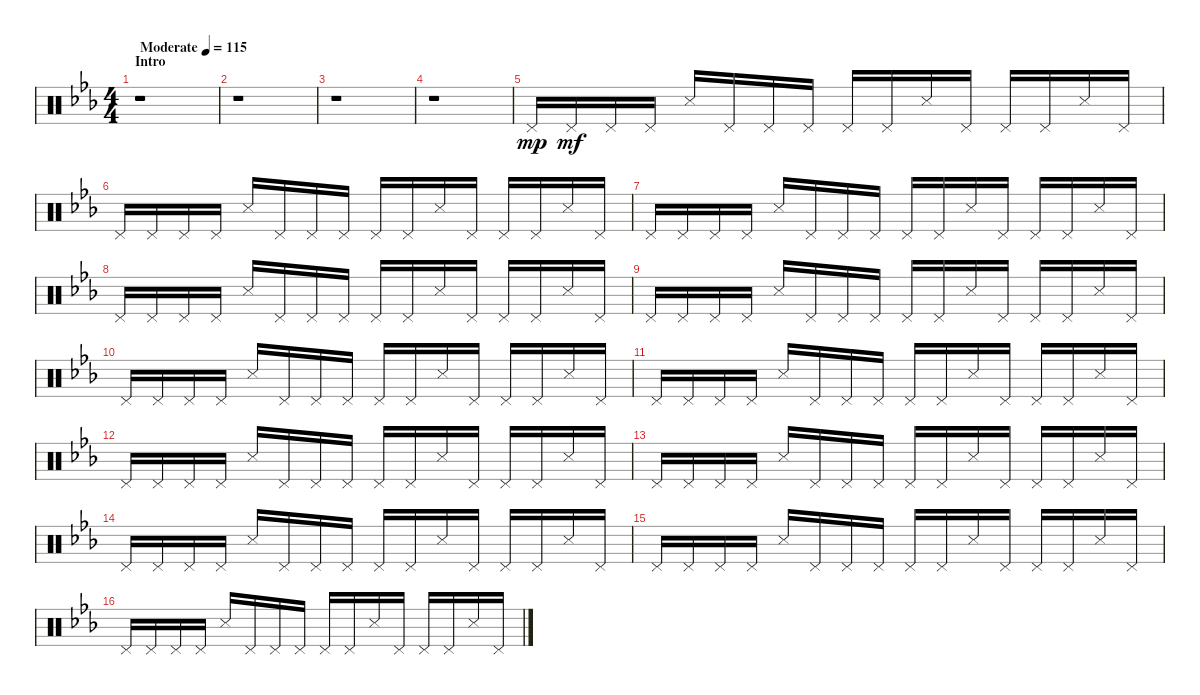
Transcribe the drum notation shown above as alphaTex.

\track "" {instrument percussion}
\staff {score}
\articulation defaults
\ts (4 4)
\section ("" "Intro")
\tempo (115 "Moderate")
\clef neutral
\ks cminor
r.1{dy mp} |
r.1 |
r.1 |
r.1 |
"Pedal Hi-Hat (hit)".16{volume 4} "Pedal Hi-Hat (hit)".16{dy mf} "Pedal Hi-Hat (hit)".16 "Pedal Hi-Hat (hit)".16 "Snare (side stick) 3".16 "Pedal Hi-Hat (hit)".16 "Pedal Hi-Hat (hit)".16 "Pedal Hi-Hat (hit)".16 "Pedal Hi-Hat (hit)".16 "Pedal Hi-Hat (hit)".16 "Snare (side stick) 3".16 "Pedal Hi-Hat (hit)".16 "Pedal Hi-Hat (hit)".16 "Pedal Hi-Hat (hit)".16 "Snare (side stick) 3".16 "Pedal Hi-Hat (hit)".16 |
"Pedal Hi-Hat (hit)".16 "Pedal Hi-Hat (hit)".16 "Pedal Hi-Hat (hit)".16 "Pedal Hi-Hat (hit)".16 "Snare (side stick) 3".16 "Pedal Hi-Hat (hit)".16 "Pedal Hi-Hat (hit)".16 "Pedal Hi-Hat (hit)".16 "Pedal Hi-Hat (hit)".16 "Pedal Hi-Hat (hit)".16 "Snare (side stick) 3".16 "Pedal Hi-Hat (hit)".16 "Pedal Hi-Hat (hit)".16 "Pedal Hi-Hat (hit)".16 "Snare (side stick) 3".16 "Pedal Hi-Hat (hit)".16 |
"Pedal Hi-Hat (hit)".16 "Pedal Hi-Hat (hit)".16 "Pedal Hi-Hat (hit)".16 "Pedal Hi-Hat (hit)".16 "Snare (side stick) 3".16 "Pedal Hi-Hat (hit)".16 "Pedal Hi-Hat (hit)".16 "Pedal Hi-Hat (hit)".16 "Pedal Hi-Hat (hit)".16 "Pedal Hi-Hat (hit)".16 "Snare (side stick) 3".16 "Pedal Hi-Hat (hit)".16 "Pedal Hi-Hat (hit)".16 "Pedal Hi-Hat (hit)".16 "Snare (side stick) 3".16 "Pedal Hi-Hat (hit)".16 |
"Pedal Hi-Hat (hit)".16 "Pedal Hi-Hat (hit)".16 "Pedal Hi-Hat (hit)".16 "Pedal Hi-Hat (hit)".16 "Snare (side stick) 3".16 "Pedal Hi-Hat (hit)".16 "Pedal Hi-Hat (hit)".16 "Pedal Hi-Hat (hit)".16 "Pedal Hi-Hat (hit)".16 "Pedal Hi-Hat (hit)".16 "Snare (side stick) 3".16 "Pedal Hi-Hat (hit)".16 "Pedal Hi-Hat (hit)".16 "Pedal Hi-Hat (hit)".16 "Snare (side stick) 3".16 "Pedal Hi-Hat (hit)".16 |
"Pedal Hi-Hat (hit)".16 "Pedal Hi-Hat (hit)".16 "Pedal Hi-Hat (hit)".16 "Pedal Hi-Hat (hit)".16 "Snare (side stick) 3".16 "Pedal Hi-Hat (hit)".16 "Pedal Hi-Hat (hit)".16 "Pedal Hi-Hat (hit)".16 "Pedal Hi-Hat (hit)".16 "Pedal Hi-Hat (hit)".16 "Snare (side stick) 3".16 "Pedal Hi-Hat (hit)".16 "Pedal Hi-Hat (hit)".16 "Pedal Hi-Hat (hit)".16 "Snare (side stick) 3".16 "Pedal Hi-Hat (hit)".16 |
"Pedal Hi-Hat (hit)".16 "Pedal Hi-Hat (hit)".16 "Pedal Hi-Hat (hit)".16 "Pedal Hi-Hat (hit)".16 "Snare (side stick) 3".16 "Pedal Hi-Hat (hit)".16 "Pedal Hi-Hat (hit)".16 "Pedal Hi-Hat (hit)".16 "Pedal Hi-Hat (hit)".16 "Pedal Hi-Hat (hit)".16 "Snare (side stick) 3".16 "Pedal Hi-Hat (hit)".16 "Pedal Hi-Hat (hit)".16 "Pedal Hi-Hat (hit)".16 "Snare (side stick) 3".16 "Pedal Hi-Hat (hit)".16 |
"Pedal Hi-Hat (hit)".16 "Pedal Hi-Hat (hit)".16 "Pedal Hi-Hat (hit)".16 "Pedal Hi-Hat (hit)".16 "Snare (side stick) 3".16 "Pedal Hi-Hat (hit)".16 "Pedal Hi-Hat (hit)".16 "Pedal Hi-Hat (hit)".16 "Pedal Hi-Hat (hit)".16 "Pedal Hi-Hat (hit)".16 "Snare (side stick) 3".16 "Pedal Hi-Hat (hit)".16 "Pedal Hi-Hat (hit)".16 "Pedal Hi-Hat (hit)".16 "Snare (side stick) 3".16 "Pedal Hi-Hat (hit)".16 |
"Pedal Hi-Hat (hit)".16 "Pedal Hi-Hat (hit)".16 "Pedal Hi-Hat (hit)".16 "Pedal Hi-Hat (hit)".16 "Snare (side stick) 3".16 "Pedal Hi-Hat (hit)".16 "Pedal Hi-Hat (hit)".16 "Pedal Hi-Hat (hit)".16 "Pedal Hi-Hat (hit)".16 "Pedal Hi-Hat (hit)".16 "Snare (side stick) 3".16 "Pedal Hi-Hat (hit)".16 "Pedal Hi-Hat (hit)".16 "Pedal Hi-Hat (hit)".16 "Snare (side stick) 3".16 "Pedal Hi-Hat (hit)".16 |
"Pedal Hi-Hat (hit)".16 "Pedal Hi-Hat (hit)".16 "Pedal Hi-Hat (hit)".16 "Pedal Hi-Hat (hit)".16 "Snare (side stick) 3".16 "Pedal Hi-Hat (hit)".16 "Pedal Hi-Hat (hit)".16 "Pedal Hi-Hat (hit)".16 "Pedal Hi-Hat (hit)".16 "Pedal Hi-Hat (hit)".16 "Snare (side stick) 3".16 "Pedal Hi-Hat (hit)".16 "Pedal Hi-Hat (hit)".16 "Pedal Hi-Hat (hit)".16 "Snare (side stick) 3".16 "Pedal Hi-Hat (hit)".16 |
"Pedal Hi-Hat (hit)".16 "Pedal Hi-Hat (hit)".16 "Pedal Hi-Hat (hit)".16 "Pedal Hi-Hat (hit)".16 "Snare (side stick) 3".16 "Pedal Hi-Hat (hit)".16 "Pedal Hi-Hat (hit)".16 "Pedal Hi-Hat (hit)".16 "Pedal Hi-Hat (hit)".16 "Pedal Hi-Hat (hit)".16 "Snare (side stick) 3".16 "Pedal Hi-Hat (hit)".16 "Pedal Hi-Hat (hit)".16 "Pedal Hi-Hat (hit)".16 "Snare (side stick) 3".16 "Pedal Hi-Hat (hit)".16 |
"Pedal Hi-Hat (hit)".16 "Pedal Hi-Hat (hit)".16 "Pedal Hi-Hat (hit)".16 "Pedal Hi-Hat (hit)".16 "Snare (side stick) 3".16 "Pedal Hi-Hat (hit)".16 "Pedal Hi-Hat (hit)".16 "Pedal Hi-Hat (hit)".16 "Pedal Hi-Hat (hit)".16 "Pedal Hi-Hat (hit)".16 "Snare (side stick) 3".16 "Pedal Hi-Hat (hit)".16 "Pedal Hi-Hat (hit)".16 "Pedal Hi-Hat (hit)".16 "Snare (side stick) 3".16 "Pedal Hi-Hat (hit)".16 |
"Pedal Hi-Hat (hit)".16 "Pedal Hi-Hat (hit)".16 "Pedal Hi-Hat (hit)".16 "Pedal Hi-Hat (hit)".16 "Snare (side stick) 3".16 "Pedal Hi-Hat (hit)".16 "Pedal Hi-Hat (hit)".16 "Pedal Hi-Hat (hit)".16 "Pedal Hi-Hat (hit)".16 "Pedal Hi-Hat (hit)".16 "Snare (side stick) 3".16 "Pedal Hi-Hat (hit)".16 "Pedal Hi-Hat (hit)".16 "Pedal Hi-Hat (hit)".16 "Snare (side stick) 3".16 "Pedal Hi-Hat (hit)".16
